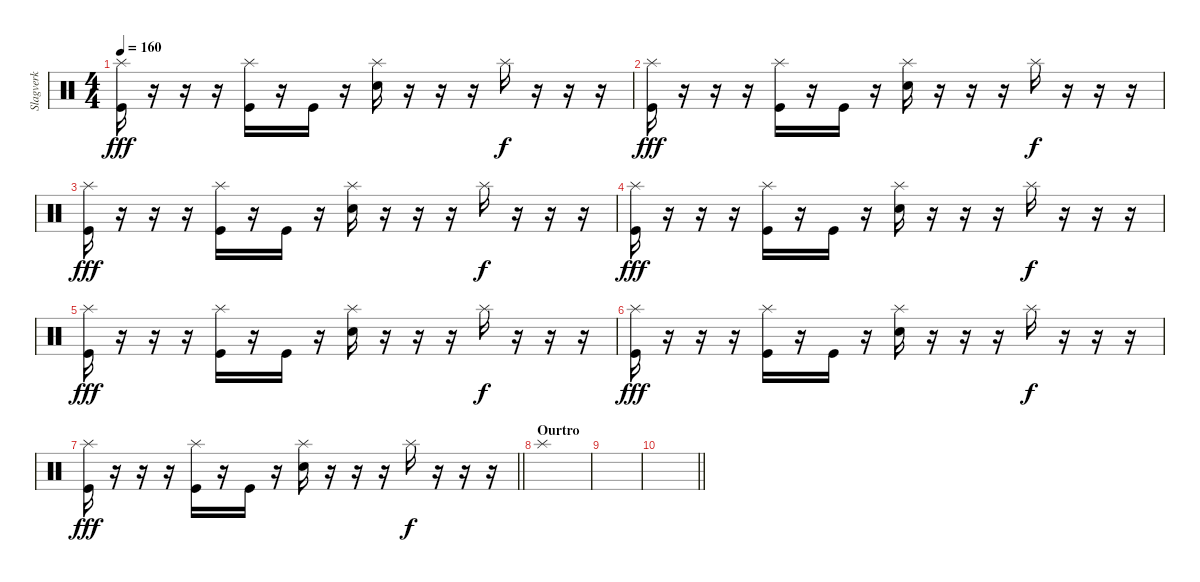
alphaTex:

\track ("Slagverk" "Slagverk") {instrument percussion}
\staff {score}
\articulation defaults
\ts (4 4)
\tempo 160
\clef neutral
\ks c
("Splash (hit)" "Kick (hit)").16{dy fff} r.16 r.16 r.16 ("Splash (hit)" "Kick (hit)").16 r.16 "Kick (hit)".16 r.16 ("Splash (hit)" "Electric Snare (hit)").16 r.16 r.16 r.16 "Splash (hit)".16{dy f} r.16 r.16 r.16 |
("Splash (hit)" "Kick (hit)").16{dy fff} r.16 r.16 r.16 ("Splash (hit)" "Kick (hit)").16 r.16 "Kick (hit)".16 r.16 ("Splash (hit)" "Electric Snare (hit)").16 r.16 r.16 r.16 "Splash (hit)".16{dy f} r.16 r.16 r.16 |
("Splash (hit)" "Kick (hit)").16{dy fff} r.16 r.16 r.16 ("Splash (hit)" "Kick (hit)").16 r.16 "Kick (hit)".16 r.16 ("Splash (hit)" "Electric Snare (hit)").16 r.16 r.16 r.16 "Splash (hit)".16{dy f} r.16 r.16 r.16 |
("Splash (hit)" "Kick (hit)").16{dy fff} r.16 r.16 r.16 ("Splash (hit)" "Kick (hit)").16 r.16 "Kick (hit)".16 r.16 ("Splash (hit)" "Electric Snare (hit)").16 r.16 r.16 r.16 "Splash (hit)".16{dy f} r.16 r.16 r.16 |
("Splash (hit)" "Kick (hit)").16{dy fff} r.16 r.16 r.16 ("Splash (hit)" "Kick (hit)").16 r.16 "Kick (hit)".16 r.16 ("Splash (hit)" "Electric Snare (hit)").16 r.16 r.16 r.16 "Splash (hit)".16{dy f} r.16 r.16 r.16 |
("Splash (hit)" "Kick (hit)").16{dy fff} r.16 r.16 r.16 ("Splash (hit)" "Kick (hit)").16 r.16 "Kick (hit)".16 r.16 ("Splash (hit)" "Electric Snare (hit)").16 r.16 r.16 r.16 "Splash (hit)".16{dy f} r.16 r.16 r.16 |
\barLineRight lightlight
("Splash (hit)" "Kick (hit)").16{dy fff} r.16 r.16 r.16 ("Splash (hit)" "Kick (hit)").16 r.16 "Kick (hit)".16 r.16 ("Splash (hit)" "Electric Snare (hit)").16 r.16 r.16 r.16 "Splash (hit)".16{dy f} r.16 r.16 r.16 |
\section ("" "Ourtro")
"Splash (hit)".1 |
|
\barLineRight lightlight
